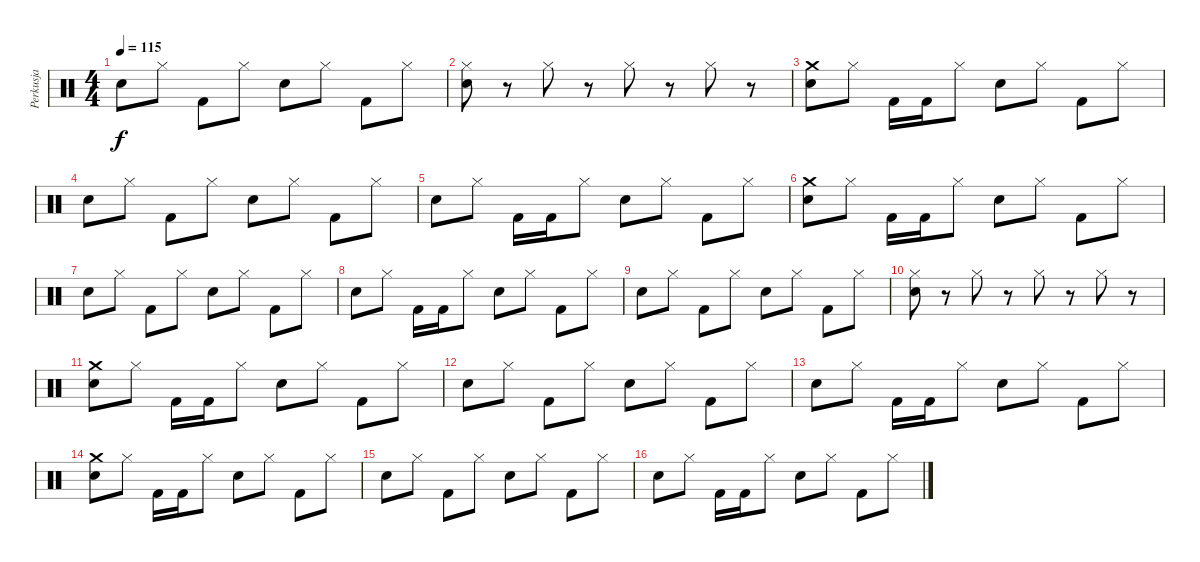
\track ("Perkusja" "Perkusja") {instrument percussion}
\staff {score}
\articulation defaults
\ts (4 4)
\tempo 115
\clef neutral
\ks c "Snare (hit) 2".8{dy f} "Hi-Hat (closed)".8 "Kick (hit) 2".8 "Hi-Hat (closed)".8 "Snare (hit) 2".8 "Hi-Hat (closed)".8 "Kick (hit) 2".8 "Hi-Hat (closed)".8
|
("Hi-Hat (closed)" "Snare (hit) 2").8 r.8 "Hi-Hat (closed)".8 r.8 "Hi-Hat (closed)".8 r.8 "Hi-Hat (closed)".8 r.8 |
("Snare (hit) 2" "Crash medium (hit)").8 "Hi-Hat (closed)".8 "Kick (hit) 2".16 "Kick (hit) 2".16 "Hi-Hat (closed)".8 "Snare (hit) 2".8 "Hi-Hat (closed)".8 "Kick (hit) 2".8 "Hi-Hat (closed)".8 |
"Snare (hit) 2".8 "Hi-Hat (closed)".8 "Kick (hit) 2".8 "Hi-Hat (closed)".8 "Snare (hit) 2".8 "Hi-Hat (closed)".8 "Kick (hit) 2".8 "Hi-Hat (closed)".8 |
"Snare (hit) 2".8 "Hi-Hat (closed)".8 "Kick (hit) 2".16 "Kick (hit) 2".16 "Hi-Hat (closed)".8 "Snare (hit) 2".8 "Hi-Hat (closed)".8 "Kick (hit) 2".8 "Hi-Hat (closed)".8 |
("Snare (hit) 2" "Crash medium (hit)").8 "Hi-Hat (closed)".8 "Kick (hit) 2".16 "Kick (hit) 2".16 "Hi-Hat (closed)".8 "Snare (hit) 2".8 "Hi-Hat (closed)".8 "Kick (hit) 2".8 "Hi-Hat (closed)".8 |
"Snare (hit) 2".8 "Hi-Hat (closed)".8 "Kick (hit) 2".8 "Hi-Hat (closed)".8 "Snare (hit) 2".8 "Hi-Hat (closed)".8 "Kick (hit) 2".8 "Hi-Hat (closed)".8 |
"Snare (hit) 2".8 "Hi-Hat (closed)".8 "Kick (hit) 2".16 "Kick (hit) 2".16 "Hi-Hat (closed)".8 "Snare (hit) 2".8 "Hi-Hat (closed)".8 "Kick (hit) 2".8 "Hi-Hat (closed)".8 |
"Snare (hit) 2".8 "Hi-Hat (closed)".8 "Kick (hit) 2".8 "Hi-Hat (closed)".8 "Snare (hit) 2".8 "Hi-Hat (closed)".8 "Kick (hit) 2".8 "Hi-Hat (closed)".8 |
("Hi-Hat (closed)" "Snare (hit) 2").8 r.8 "Hi-Hat (closed)".8 r.8 "Hi-Hat (closed)".8 r.8 "Hi-Hat (closed)".8 r.8 |
("Snare (hit) 2" "Crash medium (hit)").8 "Hi-Hat (closed)".8 "Kick (hit) 2".16 "Kick (hit) 2".16 "Hi-Hat (closed)".8 "Snare (hit) 2".8 "Hi-Hat (closed)".8 "Kick (hit) 2".8 "Hi-Hat (closed)".8 |
"Snare (hit) 2".8 "Hi-Hat (closed)".8 "Kick (hit) 2".8 "Hi-Hat (closed)".8 "Snare (hit) 2".8 "Hi-Hat (closed)".8 "Kick (hit) 2".8 "Hi-Hat (closed)".8 |
"Snare (hit) 2".8 "Hi-Hat (closed)".8 "Kick (hit) 2".16 "Kick (hit) 2".16 "Hi-Hat (closed)".8 "Snare (hit) 2".8 "Hi-Hat (closed)".8 "Kick (hit) 2".8 "Hi-Hat (closed)".8 |
("Snare (hit) 2" "Crash medium (hit)").8 "Hi-Hat (closed)".8 "Kick (hit) 2".16 "Kick (hit) 2".16 "Hi-Hat (closed)".8 "Snare (hit) 2".8 "Hi-Hat (closed)".8 "Kick (hit) 2".8 "Hi-Hat (closed)".8 |
"Snare (hit) 2".8 "Hi-Hat (closed)".8 "Kick (hit) 2".8 "Hi-Hat (closed)".8 "Snare (hit) 2".8 "Hi-Hat (closed)".8 "Kick (hit) 2".8 "Hi-Hat (closed)".8 |
"Snare (hit) 2".8 "Hi-Hat (closed)".8 "Kick (hit) 2".16 "Kick (hit) 2".16 "Hi-Hat (closed)".8 "Snare (hit) 2".8 "Hi-Hat (closed)".8 "Kick (hit) 2".8 "Hi-Hat (closed)".8
